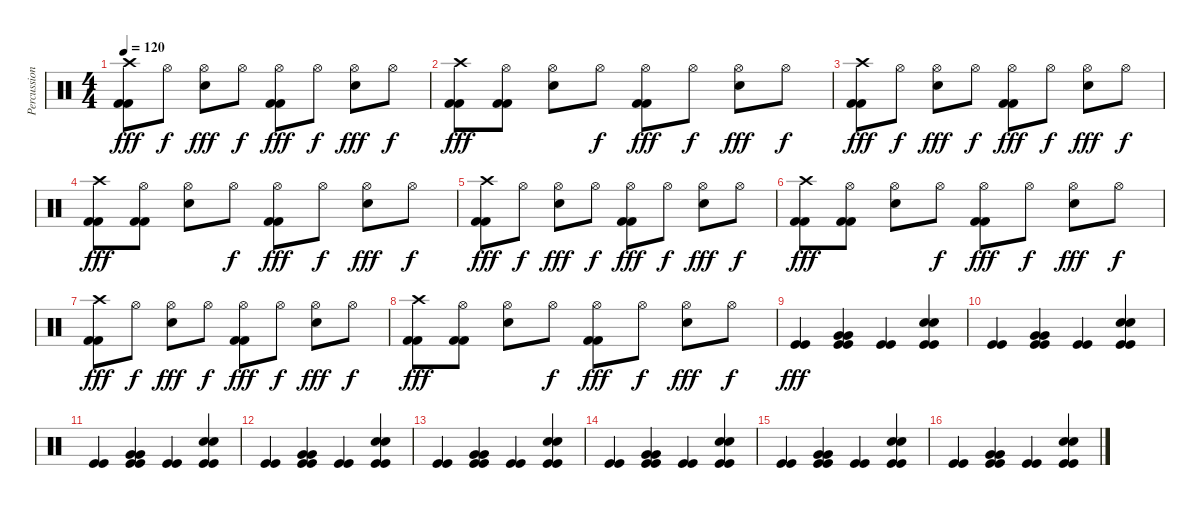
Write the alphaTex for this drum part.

\track ("Percussion" "Percussion") {instrument percussion}
\staff {score}
\articulation defaults
\ts (4 4)
\tempo 120
\clef neutral
\ks c
("Crash high (hit)" "Kick (hit) 2" "Kick (hit) 2").8{dy fff} "Hi-Hat (open)".8{dy f} ("Hi-Hat (open)" "Snare (hit) 2").8{dy fff} "Hi-Hat (open)".8{dy f} ("Hi-Hat (open)" "Kick (hit) 2" "Kick (hit) 2").8{dy fff} "Hi-Hat (open)".8{dy f} ("Hi-Hat (open)" "Snare (hit) 2").8{dy fff} "Hi-Hat (open)".8{dy f} |
("Crash high (hit)" "Kick (hit) 2" "Kick (hit) 2").8{dy fff} ("Hi-Hat (open)" "Kick (hit) 2" "Kick (hit) 2").8 ("Hi-Hat (open)" "Snare (hit) 2").8 "Hi-Hat (open)".8{dy f} ("Hi-Hat (open)" "Kick (hit) 2" "Kick (hit) 2").8{dy fff} "Hi-Hat (open)".8{dy f} ("Hi-Hat (open)" "Snare (hit) 2").8{dy fff} "Hi-Hat (open)".8{dy f} |
("Crash high (hit)" "Kick (hit) 2" "Kick (hit) 2").8{dy fff} "Hi-Hat (open)".8{dy f} ("Hi-Hat (open)" "Snare (hit) 2").8{dy fff} "Hi-Hat (open)".8{dy f} ("Hi-Hat (open)" "Kick (hit) 2" "Kick (hit) 2").8{dy fff} "Hi-Hat (open)".8{dy f} ("Hi-Hat (open)" "Snare (hit) 2").8{dy fff} "Hi-Hat (open)".8{dy f} |
("Crash high (hit)" "Kick (hit) 2" "Kick (hit) 2").8{dy fff} ("Hi-Hat (open)" "Kick (hit) 2" "Kick (hit) 2").8 ("Hi-Hat (open)" "Snare (hit) 2").8 "Hi-Hat (open)".8{dy f} ("Hi-Hat (open)" "Kick (hit) 2" "Kick (hit) 2").8{dy fff} "Hi-Hat (open)".8{dy f} ("Hi-Hat (open)" "Snare (hit) 2").8{dy fff} "Hi-Hat (open)".8{dy f} |
("Crash high (hit)" "Kick (hit) 2" "Kick (hit) 2").8{dy fff} "Hi-Hat (open)".8{dy f} ("Hi-Hat (open)" "Snare (hit) 2").8{dy fff} "Hi-Hat (open)".8{dy f} ("Hi-Hat (open)" "Kick (hit) 2" "Kick (hit) 2").8{dy fff} "Hi-Hat (open)".8{dy f} ("Hi-Hat (open)" "Snare (hit) 2").8{dy fff} "Hi-Hat (open)".8{dy f} |
("Crash high (hit)" "Kick (hit) 2" "Kick (hit) 2").8{dy fff} ("Hi-Hat (open)" "Kick (hit) 2" "Kick (hit) 2").8 ("Hi-Hat (open)" "Snare (hit) 2").8 "Hi-Hat (open)".8{dy f} ("Hi-Hat (open)" "Kick (hit) 2" "Kick (hit) 2").8{dy fff} "Hi-Hat (open)".8{dy f} ("Hi-Hat (open)" "Snare (hit) 2").8{dy fff} "Hi-Hat (open)".8{dy f} |
("Crash high (hit)" "Kick (hit) 2" "Kick (hit) 2").8{dy fff} "Hi-Hat (open)".8{dy f} ("Hi-Hat (open)" "Snare (hit) 2").8{dy fff} "Hi-Hat (open)".8{dy f} ("Hi-Hat (open)" "Kick (hit) 2" "Kick (hit) 2").8{dy fff} "Hi-Hat (open)".8{dy f} ("Hi-Hat (open)" "Snare (hit) 2").8{dy fff} "Hi-Hat (open)".8{dy f} |
("Crash high (hit)" "Kick (hit) 2" "Kick (hit) 2").8{dy fff} ("Hi-Hat (open)" "Kick (hit) 2" "Kick (hit) 2").8 ("Hi-Hat (open)" "Snare (hit) 2").8 "Hi-Hat (open)".8{dy f} ("Hi-Hat (open)" "Kick (hit) 2" "Kick (hit) 2").8{dy fff} "Hi-Hat (open)".8{dy f} ("Hi-Hat (open)" "Snare (hit) 2").8{dy fff} "Hi-Hat (open)".8{dy f} |
("Kick (hit)" "Kick (hit)").4{dy fff} ("Kick (hit)" "Kick (hit)" "Very Low Tom (hit)" "Very Low Tom (hit)").4 ("Kick (hit)" "Kick (hit)").4 ("Kick (hit)" "Kick (hit)" "Snare (hit) 2" "Snare (hit) 2").4 |
("Kick (hit)" "Kick (hit)").4 ("Kick (hit)" "Kick (hit)" "Very Low Tom (hit)" "Very Low Tom (hit)").4 ("Kick (hit)" "Kick (hit)").4 ("Kick (hit)" "Kick (hit)" "Snare (hit) 2" "Snare (hit) 2").4 |
("Kick (hit)" "Kick (hit)").4 ("Kick (hit)" "Kick (hit)" "Very Low Tom (hit)" "Very Low Tom (hit)").4 ("Kick (hit)" "Kick (hit)").4 ("Kick (hit)" "Kick (hit)" "Snare (hit) 2" "Snare (hit) 2").4 |
("Kick (hit)" "Kick (hit)").4 ("Kick (hit)" "Kick (hit)" "Very Low Tom (hit)" "Very Low Tom (hit)").4 ("Kick (hit)" "Kick (hit)").4 ("Kick (hit)" "Kick (hit)" "Snare (hit) 2" "Snare (hit) 2").4 |
("Kick (hit)" "Kick (hit)").4 ("Kick (hit)" "Kick (hit)" "Very Low Tom (hit)" "Very Low Tom (hit)").4 ("Kick (hit)" "Kick (hit)").4 ("Kick (hit)" "Kick (hit)" "Snare (hit) 2" "Snare (hit) 2").4 |
("Kick (hit)" "Kick (hit)").4 ("Kick (hit)" "Kick (hit)" "Very Low Tom (hit)" "Very Low Tom (hit)").4 ("Kick (hit)" "Kick (hit)").4 ("Kick (hit)" "Kick (hit)" "Snare (hit) 2" "Snare (hit) 2").4 |
("Kick (hit)" "Kick (hit)").4 ("Kick (hit)" "Kick (hit)" "Very Low Tom (hit)" "Very Low Tom (hit)").4 ("Kick (hit)" "Kick (hit)").4 ("Kick (hit)" "Kick (hit)" "Snare (hit) 2" "Snare (hit) 2").4 |
("Kick (hit)" "Kick (hit)").4 ("Kick (hit)" "Kick (hit)" "Very Low Tom (hit)" "Very Low Tom (hit)").4 ("Kick (hit)" "Kick (hit)").4 ("Kick (hit)" "Kick (hit)" "Snare (hit) 2" "Snare (hit) 2").4
